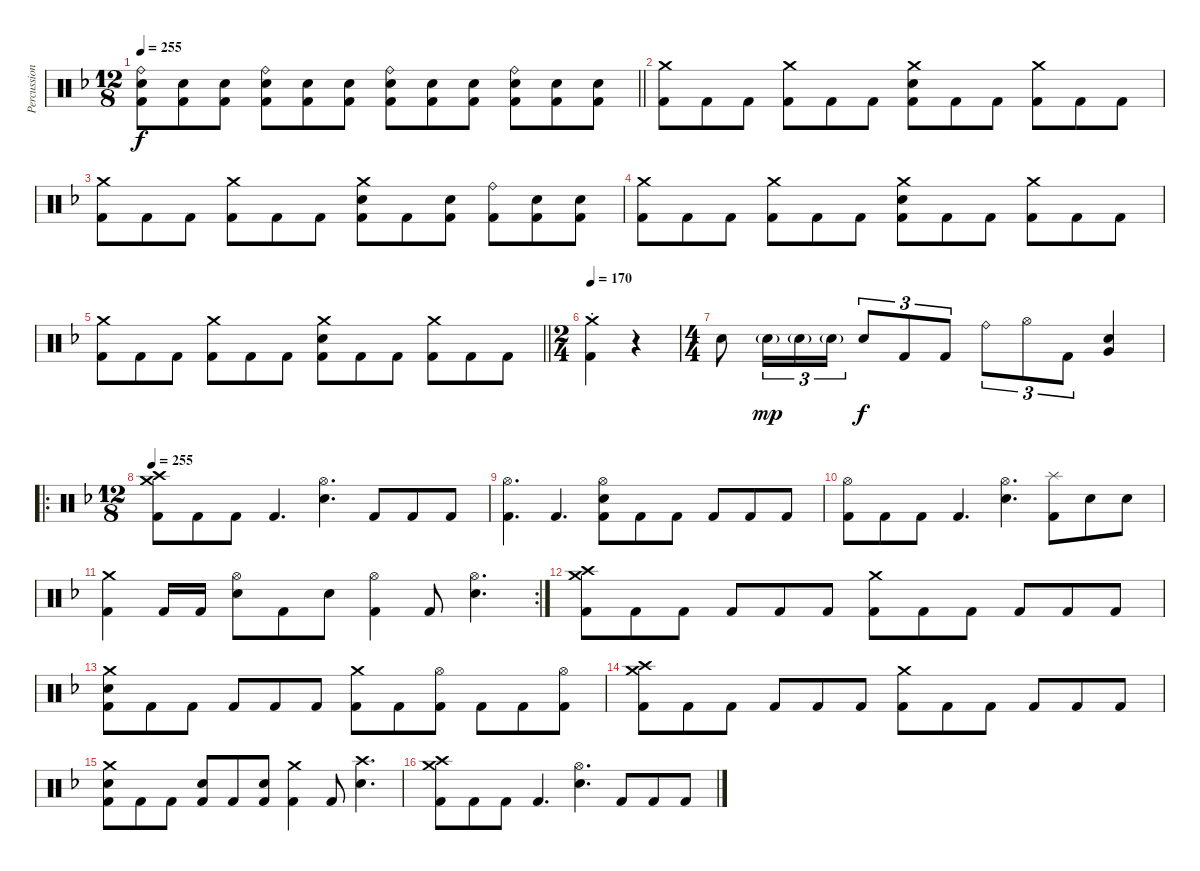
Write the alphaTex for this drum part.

\track ("Percussion" "Percussion") {instrument percussion}
\staff {score}
\articulation defaults
\ts (12 8)
\tempo 255
\clef neutral
\barLineRight lightlight
\ks dminor
("Ride (bell)" "Electric Snare (hit)" "Kick (hit) 2").8{dy f} ("Electric Snare (hit)" "Kick (hit) 2").8 ("Electric Snare (hit)" "Kick (hit) 2").8 ("Ride (bell)" "Electric Snare (hit)" "Kick (hit) 2").8 ("Electric Snare (hit)" "Kick (hit) 2").8 ("Electric Snare (hit)" "Kick (hit) 2").8 ("Ride (bell)" "Electric Snare (hit)" "Kick (hit) 2").8 ("Electric Snare (hit)" "Kick (hit) 2").8 ("Electric Snare (hit)" "Kick (hit) 2").8 ("Ride (bell)" "Electric Snare (hit)" "Kick (hit) 2").8 ("Electric Snare (hit)" "Kick (hit) 2").8 ("Electric Snare (hit)" "Kick (hit) 2").8 |
("Crash medium (hit)" "Kick (hit) 2").8 "Kick (hit) 2".8 "Kick (hit) 2".8 ("Crash medium (hit)" "Kick (hit) 2").8 "Kick (hit) 2".8 "Kick (hit) 2".8 ("Crash medium (hit)" "Electric Snare (hit)" "Kick (hit) 2").8 "Kick (hit) 2".8 "Kick (hit) 2".8 ("Crash medium (hit)" "Kick (hit) 2").8 "Kick (hit) 2".8 "Kick (hit) 2".8 |
("Crash medium (hit)" "Kick (hit) 2").8 "Kick (hit) 2".8 "Kick (hit) 2".8 ("Crash medium (hit)" "Kick (hit) 2").8 "Kick (hit) 2".8 "Kick (hit) 2".8 ("Crash medium (hit)" "Electric Snare (hit)" "Kick (hit) 2").8 "Kick (hit) 2".8 ("Electric Snare (hit)" "Kick (hit) 2").8 ("Ride (bell)" "Kick (hit) 2").8 ("Electric Snare (hit)" "Kick (hit) 2").8 ("Electric Snare (hit)" "Kick (hit) 2").8 |
("Crash medium (hit)" "Kick (hit) 2").8 "Kick (hit) 2".8 "Kick (hit) 2".8 ("Crash medium (hit)" "Kick (hit) 2").8 "Kick (hit) 2".8 "Kick (hit) 2".8 ("Crash medium (hit)" "Electric Snare (hit)" "Kick (hit) 2").8 "Kick (hit) 2".8 "Kick (hit) 2".8 ("Crash medium (hit)" "Kick (hit) 2").8 "Kick (hit) 2".8 "Kick (hit) 2".8 |
\barLineRight lightlight
("Crash medium (hit)" "Kick (hit) 2").8 "Kick (hit) 2".8 "Kick (hit) 2".8 ("Crash medium (hit)" "Kick (hit) 2").8 "Kick (hit) 2".8 "Kick (hit) 2".8 ("Crash medium (hit)" "Electric Snare (hit)" "Kick (hit) 2").8 "Kick (hit) 2".8 "Kick (hit) 2".8 ("Crash medium (hit)" "Kick (hit) 2").8 "Kick (hit) 2".8 "Kick (hit) 2".8 |
\ts (2 4)
\section ("" "")
\tempo 170
("Crash medium (hit)"{st} "Kick (hit) 2").4 r.4 |
\ts (4 4)
"Electric Snare (hit)".8 "Electric Snare (hit)"{g}.16{tu (3 2) dy mp} "Electric Snare (hit)"{g}.16{tu (3 2)} "Electric Snare (hit)"{g}.16{tu (3 2)} "Electric Snare (hit)".8{tu (3 2) dy f} "Kick (hit) 2".8{tu (3 2)} "Kick (hit) 2".8{tu (3 2)} "Ride (bell)".8{tu (3 2)} "Hi-Hat (open)".8{tu (3 2)} "Kick (hit) 2".8{tu (3 2)} ("Very Low Tom (hit)" "Electric Snare (hit)").4 |
\ro
\ts (12 8)
\tempo 255
("Crash medium (hit)" "Crash high (hit)" "Kick (hit) 2").8 "Kick (hit) 2".8 "Kick (hit) 2".8 "Kick (hit) 2".4{d} ("Hi-Hat (open)" "Electric Snare (hit)").4{d} "Kick (hit) 2".8 "Kick (hit) 2".8 "Kick (hit) 2".8 |
("Hi-Hat (open)" "Kick (hit) 2").4{d} "Kick (hit) 2".4{d} ("Hi-Hat (open)" "Electric Snare (hit)" "Kick (hit) 2").8 "Kick (hit) 2".8 "Kick (hit) 2".8 "Kick (hit) 2".8 "Kick (hit) 2".8 "Kick (hit) 2".8 |
("Hi-Hat (open)" "Kick (hit) 2").8 "Kick (hit) 2".8 "Kick (hit) 2".8 "Kick (hit) 2".4{d} ("Hi-Hat (open)" "Electric Snare (hit)").4{d} ("Splash (hit)" "Kick (hit) 2").8 "Electric Snare (hit)".8 "Electric Snare (hit)".8 |
\rc 2
("Crash medium (hit)" "Kick (hit) 2").4 "Kick (hit) 2".16 "Kick (hit) 2".16 ("Hi-Hat (open)" "Electric Snare (hit)").8 "Kick (hit) 2".8 "Electric Snare (hit)".8 ("Hi-Hat (open)" "Kick (hit) 2").4 "Kick (hit) 2".8 ("Hi-Hat (open)" "Electric Snare (hit)").4{d} |
("Crash medium (hit)" "Crash high (hit)" "Kick (hit) 2").8 "Kick (hit) 2".8 "Kick (hit) 2".8 "Kick (hit) 2".8 "Kick (hit) 2".8 "Kick (hit) 2".8 ("Crash medium (hit)" "Kick (hit) 2").8 "Kick (hit) 2".8 "Kick (hit) 2".8 "Kick (hit) 2".8 "Kick (hit) 2".8 "Kick (hit) 2".8 |
("Crash medium (hit)" "Electric Snare (hit)" "Kick (hit) 2").8 "Kick (hit) 2".8 "Kick (hit) 2".8 "Kick (hit) 2".8 "Kick (hit) 2".8 "Kick (hit) 2".8 ("Crash medium (hit)" "Kick (hit) 2").8 "Kick (hit) 2".8 ("Hi-Hat (open)" "Kick (hit) 2").8 "Kick (hit) 2".8 "Kick (hit) 2".8 ("Hi-Hat (open)" "Kick (hit) 2").8 |
("Crash medium (hit)" "Crash high (hit)" "Kick (hit) 2").8 "Kick (hit) 2".8 "Kick (hit) 2".8 "Kick (hit) 2".8 "Kick (hit) 2".8 "Kick (hit) 2".8 ("Crash medium (hit)" "Kick (hit) 2").8 "Kick (hit) 2".8 "Kick (hit) 2".8 "Kick (hit) 2".8 "Kick (hit) 2".8 "Kick (hit) 2".8 |
("Crash medium (hit)" "Electric Snare (hit)" "Kick (hit) 2").8 "Kick (hit) 2".8 "Kick (hit) 2".8 ("Electric Snare (hit)" "Kick (hit) 2").8 "Kick (hit) 2".8 ("Electric Snare (hit)" "Kick (hit) 2").8 ("Crash medium (hit)" "Kick (hit) 2").4 "Kick (hit) 2".8 ("Crash high (hit)" "Electric Snare (hit)").4{d} |
("Crash medium (hit)" "Crash high (hit)" "Kick (hit) 2").8 "Kick (hit) 2".8 "Kick (hit) 2".8 "Kick (hit) 2".4{d} ("Hi-Hat (open)" "Electric Snare (hit)").4{d} "Kick (hit) 2".8 "Kick (hit) 2".8 "Kick (hit) 2".8
